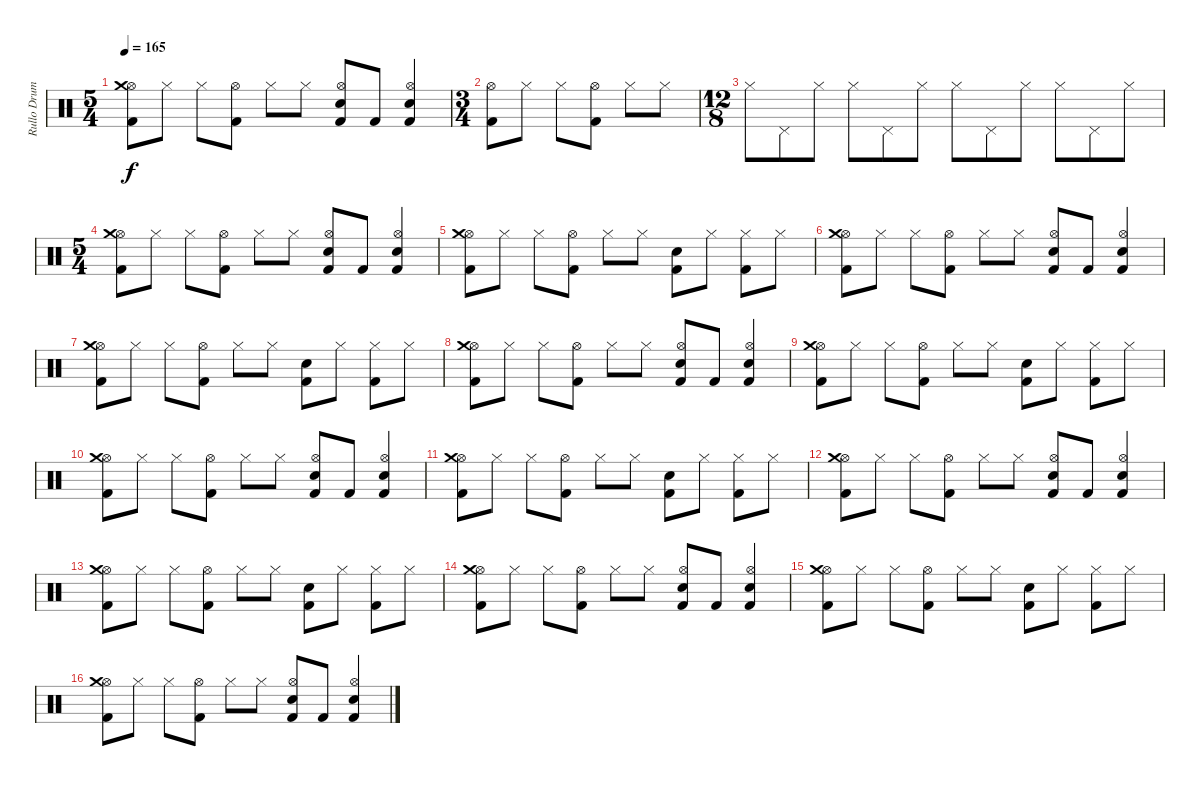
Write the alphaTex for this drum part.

\track ("Rullo Drums" "Rullo Drum") {instrument percussion}
\staff {score}
\articulation defaults
\ts (5 4)
\tempo 165
\clef neutral
\ks c
("Kick (hit) 2" "Hi-Hat (open)" "Crash medium (hit)").8{dy f} "Hi-Hat (closed)".8 "Hi-Hat (closed)".8 ("Kick (hit) 2" "Hi-Hat (open)").8 "Hi-Hat (closed)".8 "Hi-Hat (closed)".8 ("Kick (hit) 2" "Snare (hit) 2" "Hi-Hat (open)").8 "Kick (hit) 2".8 ("Kick (hit) 2" "Snare (hit) 2" "Hi-Hat (open)").4 |
\ts (3 4)
("Kick (hit) 2" "Hi-Hat (open)").8 "Hi-Hat (closed)".8 "Hi-Hat (closed)".8 ("Kick (hit) 2" "Hi-Hat (open)").8 "Hi-Hat (closed)".8 "Hi-Hat (closed)".8 |
\ts (12 8)
"Hi-Hat (closed)".8 "Pedal Hi-Hat (hit)".8 "Hi-Hat (closed)".8 "Hi-Hat (closed)".8 "Pedal Hi-Hat (hit)".8 "Hi-Hat (closed)".8 "Hi-Hat (closed)".8 "Pedal Hi-Hat (hit)".8 "Hi-Hat (closed)".8 "Hi-Hat (closed)".8 "Pedal Hi-Hat (hit)".8 "Hi-Hat (closed)".8 |
\ts (5 4)
("Kick (hit) 2" "Hi-Hat (open)" "Crash medium (hit)").8 "Hi-Hat (closed)".8 "Hi-Hat (closed)".8 ("Kick (hit) 2" "Hi-Hat (open)").8 "Hi-Hat (closed)".8 "Hi-Hat (closed)".8 ("Kick (hit) 2" "Snare (hit) 2" "Hi-Hat (open)").8 "Kick (hit) 2".8 ("Kick (hit) 2" "Snare (hit) 2" "Hi-Hat (open)").4 |
("Kick (hit) 2" "Hi-Hat (open)" "Crash medium (hit)").8 "Hi-Hat (closed)".8 "Hi-Hat (closed)".8 ("Kick (hit) 2" "Hi-Hat (open)").8 "Hi-Hat (closed)".8 "Hi-Hat (closed)".8 ("Kick (hit) 2" "Snare (hit) 2").8 "Hi-Hat (closed)".8 ("Hi-Hat (closed)" "Kick (hit) 2").8 "Hi-Hat (closed)".8 |
("Kick (hit) 2" "Hi-Hat (open)" "Crash medium (hit)").8 "Hi-Hat (closed)".8 "Hi-Hat (closed)".8 ("Kick (hit) 2" "Hi-Hat (open)").8 "Hi-Hat (closed)".8 "Hi-Hat (closed)".8 ("Kick (hit) 2" "Snare (hit) 2" "Hi-Hat (open)").8 "Kick (hit) 2".8 ("Kick (hit) 2" "Snare (hit) 2" "Hi-Hat (open)").4 |
("Kick (hit) 2" "Hi-Hat (open)" "Crash medium (hit)").8 "Hi-Hat (closed)".8 "Hi-Hat (closed)".8 ("Kick (hit) 2" "Hi-Hat (open)").8 "Hi-Hat (closed)".8 "Hi-Hat (closed)".8 ("Kick (hit) 2" "Snare (hit) 2").8 "Hi-Hat (closed)".8 ("Hi-Hat (closed)" "Kick (hit) 2").8 "Hi-Hat (closed)".8 |
("Kick (hit) 2" "Hi-Hat (open)" "Crash medium (hit)").8 "Hi-Hat (closed)".8 "Hi-Hat (closed)".8 ("Kick (hit) 2" "Hi-Hat (open)").8 "Hi-Hat (closed)".8 "Hi-Hat (closed)".8 ("Kick (hit) 2" "Snare (hit) 2" "Hi-Hat (open)").8 "Kick (hit) 2".8 ("Kick (hit) 2" "Snare (hit) 2" "Hi-Hat (open)").4 |
("Kick (hit) 2" "Hi-Hat (open)" "Crash medium (hit)").8 "Hi-Hat (closed)".8 "Hi-Hat (closed)".8 ("Kick (hit) 2" "Hi-Hat (open)").8 "Hi-Hat (closed)".8 "Hi-Hat (closed)".8 ("Kick (hit) 2" "Snare (hit) 2").8 "Hi-Hat (closed)".8 ("Hi-Hat (closed)" "Kick (hit) 2").8 "Hi-Hat (closed)".8 |
("Kick (hit) 2" "Hi-Hat (open)" "Crash medium (hit)").8 "Hi-Hat (closed)".8 "Hi-Hat (closed)".8 ("Kick (hit) 2" "Hi-Hat (open)").8 "Hi-Hat (closed)".8 "Hi-Hat (closed)".8 ("Kick (hit) 2" "Snare (hit) 2" "Hi-Hat (open)").8 "Kick (hit) 2".8 ("Kick (hit) 2" "Snare (hit) 2" "Hi-Hat (open)").4 |
("Kick (hit) 2" "Hi-Hat (open)" "Crash medium (hit)").8 "Hi-Hat (closed)".8 "Hi-Hat (closed)".8 ("Kick (hit) 2" "Hi-Hat (open)").8 "Hi-Hat (closed)".8 "Hi-Hat (closed)".8 ("Kick (hit) 2" "Snare (hit) 2").8 "Hi-Hat (closed)".8 ("Hi-Hat (closed)" "Kick (hit) 2").8 "Hi-Hat (closed)".8 |
("Kick (hit) 2" "Hi-Hat (open)" "Crash medium (hit)").8 "Hi-Hat (closed)".8 "Hi-Hat (closed)".8 ("Kick (hit) 2" "Hi-Hat (open)").8 "Hi-Hat (closed)".8 "Hi-Hat (closed)".8 ("Kick (hit) 2" "Snare (hit) 2" "Hi-Hat (open)").8 "Kick (hit) 2".8 ("Kick (hit) 2" "Snare (hit) 2" "Hi-Hat (open)").4 |
("Kick (hit) 2" "Hi-Hat (open)" "Crash medium (hit)").8 "Hi-Hat (closed)".8 "Hi-Hat (closed)".8 ("Kick (hit) 2" "Hi-Hat (open)").8 "Hi-Hat (closed)".8 "Hi-Hat (closed)".8 ("Kick (hit) 2" "Snare (hit) 2").8 "Hi-Hat (closed)".8 ("Hi-Hat (closed)" "Kick (hit) 2").8 "Hi-Hat (closed)".8 |
("Kick (hit) 2" "Hi-Hat (open)" "Crash medium (hit)").8 "Hi-Hat (closed)".8 "Hi-Hat (closed)".8 ("Kick (hit) 2" "Hi-Hat (open)").8 "Hi-Hat (closed)".8 "Hi-Hat (closed)".8 ("Kick (hit) 2" "Snare (hit) 2" "Hi-Hat (open)").8 "Kick (hit) 2".8 ("Kick (hit) 2" "Snare (hit) 2" "Hi-Hat (open)").4 |
("Kick (hit) 2" "Hi-Hat (open)" "Crash medium (hit)").8 "Hi-Hat (closed)".8 "Hi-Hat (closed)".8 ("Kick (hit) 2" "Hi-Hat (open)").8 "Hi-Hat (closed)".8 "Hi-Hat (closed)".8 ("Kick (hit) 2" "Snare (hit) 2").8 "Hi-Hat (closed)".8 ("Hi-Hat (closed)" "Kick (hit) 2").8 "Hi-Hat (closed)".8 |
("Kick (hit) 2" "Hi-Hat (open)" "Crash medium (hit)").8 "Hi-Hat (closed)".8 "Hi-Hat (closed)".8 ("Kick (hit) 2" "Hi-Hat (open)").8 "Hi-Hat (closed)".8 "Hi-Hat (closed)".8 ("Kick (hit) 2" "Snare (hit) 2" "Hi-Hat (open)").8 "Kick (hit) 2".8 ("Kick (hit) 2" "Snare (hit) 2" "Hi-Hat (open)").4
